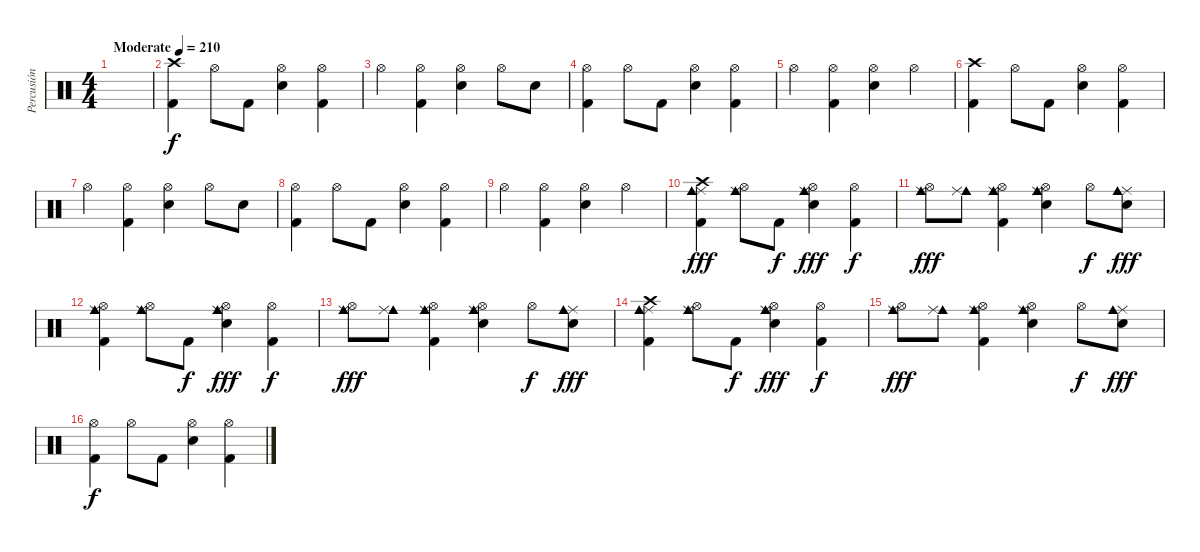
\track ("Percusión" "Percusión") {instrument percussion}
\staff {score}
\articulation defaults
\ts (4 4)
\tempo (210 "Moderate")
\clef neutral
\ks c
|
("Crash high (hit)" "Kick (hit) 2").4 "Hi-Hat (open)".8 "Kick (hit) 2".8 ("Hi-Hat (open)" "Snare (hit) 2").4 ("Hi-Hat (open)" "Kick (hit) 2").4 |
"Hi-Hat (open)".4 ("Hi-Hat (open)" "Kick (hit) 2").4 ("Hi-Hat (open)" "Snare (hit) 2").4 "Hi-Hat (open)".8 "Snare (hit) 2".8 |
("Hi-Hat (open)" "Kick (hit) 2").4 "Hi-Hat (open)".8 "Kick (hit) 2".8 ("Hi-Hat (open)" "Snare (hit) 2").4 ("Hi-Hat (open)" "Kick (hit) 2").4 |
"Hi-Hat (open)".4 ("Hi-Hat (open)" "Kick (hit) 2").4 ("Hi-Hat (open)" "Snare (hit) 2").4 "Hi-Hat (open)".4 |
("Crash high (hit)" "Kick (hit) 2").4 "Hi-Hat (open)".8 "Kick (hit) 2".8 ("Hi-Hat (open)" "Snare (hit) 2").4 ("Hi-Hat (open)" "Kick (hit) 2").4 |
"Hi-Hat (open)".4 ("Hi-Hat (open)" "Kick (hit) 2").4 ("Hi-Hat (open)" "Snare (hit) 2").4 "Hi-Hat (open)".8 "Snare (hit) 2".8 |
("Hi-Hat (open)" "Kick (hit) 2").4 "Hi-Hat (open)".8 "Kick (hit) 2".8 ("Hi-Hat (open)" "Snare (hit) 2").4 ("Hi-Hat (open)" "Kick (hit) 2").4 |
"Hi-Hat (open)".4 ("Hi-Hat (open)" "Kick (hit) 2").4 ("Hi-Hat (open)" "Snare (hit) 2").4 "Hi-Hat (open)".4 |
("Crash high (hit)" "Ride (middle)" "Cowbell medium (hit)" "Kick (hit) 2").4{dy fff} ("Hi-Hat (open)" "Ride (middle)" "Cowbell medium (hit)").8 "Kick (hit) 2".8{dy f} ("Hi-Hat (open)" "Cowbell medium (hit)" "Ride (middle)" "Snare (hit) 2").4{dy fff} ("Hi-Hat (open)" "Kick (hit) 2").4{dy f} |
("Hi-Hat (open)" "Cowbell medium (hit)" "Ride (middle)").8{dy fff} ("Cowbell medium (hit)" "Ride (middle)").8 ("Hi-Hat (open)" "Cowbell medium (hit)" "Ride (middle)" "Kick (hit) 2").4 ("Hi-Hat (open)" "Snare (hit) 2" "Ride (middle)" "Cowbell medium (hit)").4 "Hi-Hat (open)".8{dy f} ("Snare (hit) 2" "Ride (middle)" "Cowbell medium (hit)").8{dy fff} |
("Hi-Hat (open)" "Ride (middle)" "Cowbell medium (hit)" "Kick (hit) 2").4 ("Hi-Hat (open)" "Ride (middle)" "Cowbell medium (hit)").8 "Kick (hit) 2".8{dy f} ("Hi-Hat (open)" "Cowbell medium (hit)" "Ride (middle)" "Snare (hit) 2").4{dy fff} ("Hi-Hat (open)" "Kick (hit) 2").4{dy f} |
("Hi-Hat (open)" "Cowbell medium (hit)" "Ride (middle)").8{dy fff} ("Cowbell medium (hit)" "Ride (middle)").8 ("Hi-Hat (open)" "Cowbell medium (hit)" "Ride (middle)" "Kick (hit) 2").4 ("Hi-Hat (open)" "Snare (hit) 2" "Ride (middle)" "Cowbell medium (hit)").4 "Hi-Hat (open)".8{dy f} ("Snare (hit) 2" "Ride (middle)" "Cowbell medium (hit)").8{dy fff} |
("Crash high (hit)" "Ride (middle)" "Cowbell medium (hit)" "Kick (hit) 2").4 ("Hi-Hat (open)" "Ride (middle)" "Cowbell medium (hit)").8 "Kick (hit) 2".8{dy f} ("Hi-Hat (open)" "Cowbell medium (hit)" "Ride (middle)" "Snare (hit) 2").4{dy fff} ("Hi-Hat (open)" "Kick (hit) 2").4{dy f} |
("Hi-Hat (open)" "Cowbell medium (hit)" "Ride (middle)").8{dy fff} ("Cowbell medium (hit)" "Ride (middle)").8 ("Hi-Hat (open)" "Cowbell medium (hit)" "Ride (middle)" "Kick (hit) 2").4 ("Hi-Hat (open)" "Snare (hit) 2" "Ride (middle)" "Cowbell medium (hit)").4 "Hi-Hat (open)".8{dy f} ("Snare (hit) 2" "Ride (middle)" "Cowbell medium (hit)").8{dy fff} |
("Hi-Hat (open)" "Kick (hit) 2").4{dy f} "Hi-Hat (open)".8 "Kick (hit) 2".8 ("Hi-Hat (open)" "Snare (hit) 2").4 ("Hi-Hat (open)" "Kick (hit) 2").4
